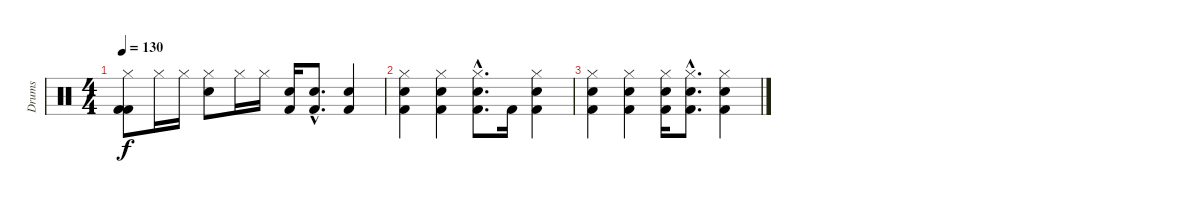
\track ("Drums" "Drums") {instrument percussion}
\staff {score}
\articulation defaults
\ts (4 4)
\tempo 130
\clef neutral
\ks c
("Hi-Hat (closed)" "Kick (hit) 2" "Kick (hit) 2").8{dy f} "Hi-Hat (closed)".16 "Hi-Hat (closed)".16 ("Hi-Hat (closed)" "Electric Snare (hit)").8 "Hi-Hat (closed)".16 "Hi-Hat (closed)".16 ("Electric Snare (hit)" "Kick (hit) 2").16 ("Electric Snare (hit)"{hac} "Kick (hit) 2"{hac}).8{d} ("Electric Snare (hit)" "Kick (hit) 2").4 |
("Hi-Hat (closed)" "Electric Snare (hit)" "Kick (hit) 2").4 ("Hi-Hat (closed)" "Electric Snare (hit)" "Kick (hit) 2").4 ("Hi-Hat (closed)"{hac} "Electric Snare (hit)"{hac} "Kick (hit) 2"{hac}).8{d} "Kick (hit) 2".16 ("Hi-Hat (closed)" "Electric Snare (hit)" "Kick (hit) 2").4 |
("Hi-Hat (closed)" "Electric Snare (hit)" "Kick (hit) 2").4 ("Hi-Hat (closed)" "Electric Snare (hit)" "Kick (hit) 2").4 ("Hi-Hat (closed)" "Electric Snare (hit)" "Kick (hit) 2").16 ("Hi-Hat (closed)"{hac} "Electric Snare (hit)"{hac} "Kick (hit) 2"{hac}).8{d} ("Hi-Hat (closed)" "Electric Snare (hit)" "Kick (hit) 2").4
